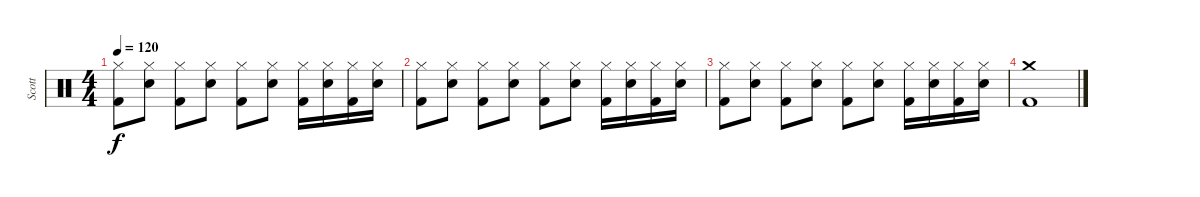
\track ("Scott" "Scott") {instrument percussion}
\staff {score}
\articulation defaults
\ts (4 4)
\tempo 120
\clef neutral
\ks c
("Hi-Hat (closed)" "Kick (hit) 2").8{dy f} ("Hi-Hat (closed)" "Snare (hit) 2").8 ("Hi-Hat (closed)" "Kick (hit) 2").8 ("Hi-Hat (closed)" "Snare (hit) 2").8 ("Hi-Hat (closed)" "Kick (hit) 2").8 ("Hi-Hat (closed)" "Snare (hit) 2").8 ("Hi-Hat (closed)" "Kick (hit) 2").16 ("Hi-Hat (closed)" "Snare (hit) 2").16 ("Hi-Hat (closed)" "Kick (hit) 2").16 ("Hi-Hat (closed)" "Snare (hit) 2").16 |
("Hi-Hat (closed)" "Kick (hit) 2").8 ("Hi-Hat (closed)" "Snare (hit) 2").8 ("Hi-Hat (closed)" "Kick (hit) 2").8 ("Hi-Hat (closed)" "Snare (hit) 2").8 ("Hi-Hat (closed)" "Kick (hit) 2").8 ("Hi-Hat (closed)" "Snare (hit) 2").8 ("Hi-Hat (closed)" "Kick (hit) 2").16 ("Hi-Hat (closed)" "Snare (hit) 2").16 ("Hi-Hat (closed)" "Kick (hit) 2").16 ("Hi-Hat (closed)" "Snare (hit) 2").16 |
("Hi-Hat (closed)" "Kick (hit) 2").8 ("Hi-Hat (closed)" "Snare (hit) 2").8 ("Hi-Hat (closed)" "Kick (hit) 2").8 ("Hi-Hat (closed)" "Snare (hit) 2").8 ("Hi-Hat (closed)" "Kick (hit) 2").8 ("Hi-Hat (closed)" "Snare (hit) 2").8 ("Hi-Hat (closed)" "Kick (hit) 2").16 ("Hi-Hat (closed)" "Snare (hit) 2").16 ("Hi-Hat (closed)" "Kick (hit) 2").16 ("Hi-Hat (closed)" "Snare (hit) 2").16 |
("Kick (hit) 2" "Crash medium (hit)").1
